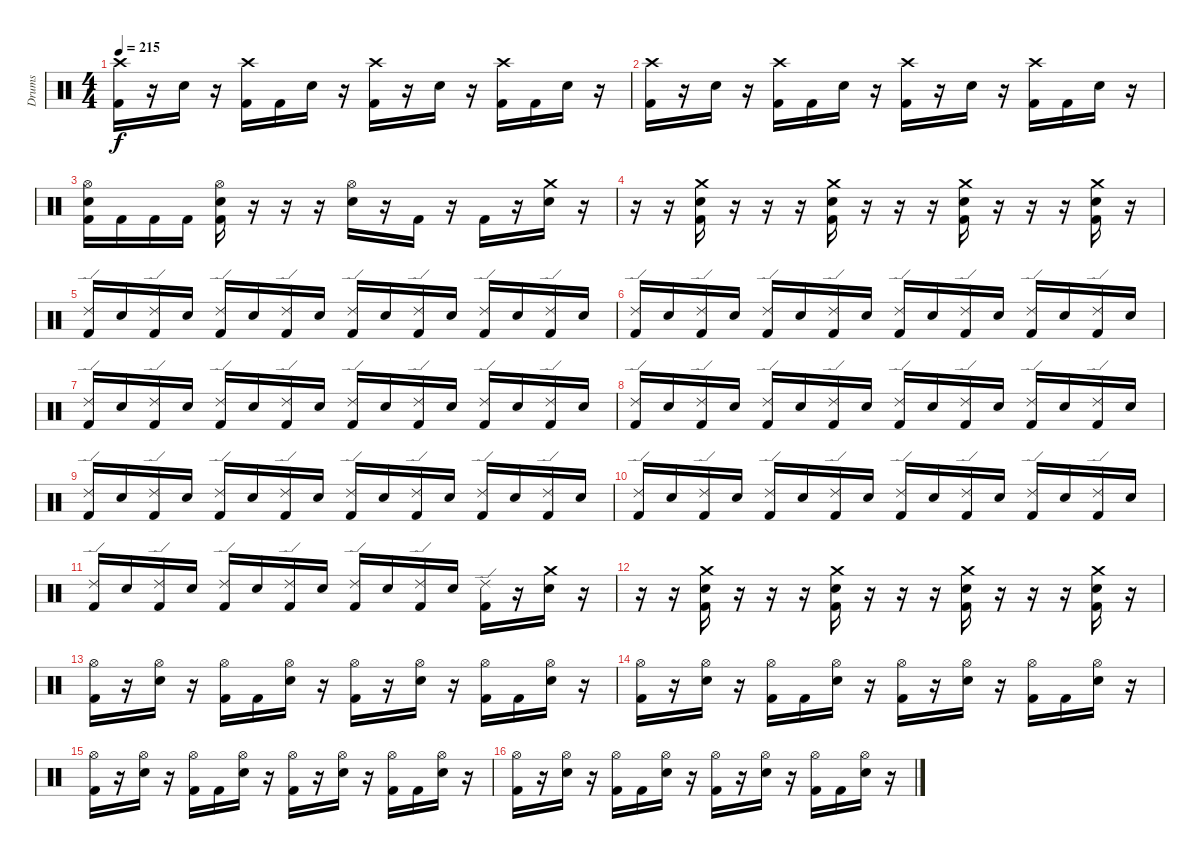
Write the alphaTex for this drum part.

\track ("Drums" "Drums") {instrument percussion}
\staff {score}
\articulation defaults
\ts (4 4)
\tempo 215
\clef neutral
\ks c
("Crash high (hit)" "Kick (hit) 2").16{dy f} r.16 "Snare (hit) 2".16 r.16 ("Crash high (hit)" "Kick (hit) 2").16 "Kick (hit) 2".16 "Snare (hit) 2".16 r.16 ("Crash high (hit)" "Kick (hit) 2").16 r.16 "Snare (hit) 2".16 r.16 ("Crash high (hit)" "Kick (hit) 2").16 "Kick (hit) 2".16 "Snare (hit) 2".16 r.16 |
("Crash high (hit)" "Kick (hit) 2").16 r.16 "Snare (hit) 2".16 r.16 ("Crash high (hit)" "Kick (hit) 2").16 "Kick (hit) 2".16 "Snare (hit) 2".16 r.16 ("Crash high (hit)" "Kick (hit) 2").16 r.16 "Snare (hit) 2".16 r.16 ("Crash high (hit)" "Kick (hit) 2").16 "Kick (hit) 2".16 "Snare (hit) 2".16 r.16 |
("Hi-Hat (open)" "Snare (hit) 2" "Kick (hit) 2").16 "Kick (hit) 2".16 "Kick (hit) 2".16 "Kick (hit) 2".16 ("Hi-Hat (open)" "Snare (hit) 2" "Kick (hit) 2").16 r.16 r.16 r.16 ("Hi-Hat (open)" "Snare (hit) 2").16 r.16 "Kick (hit) 2".16 r.16 "Kick (hit) 2".16 r.16 ("Crash medium (hit)" "Snare (hit) 2").16 r.16 |
r.16 r.16 ("Crash medium (hit)" "Snare (hit) 2" "Kick (hit) 2").16 r.16 r.16 r.16 ("Crash medium (hit)" "Snare (hit) 2" "Kick (hit) 2").16 r.16 r.16 r.16 ("Crash medium (hit)" "Snare (hit) 2" "Kick (hit) 2").16 r.16 r.16 r.16 ("Crash medium (hit)" "Snare (hit) 2" "Kick (hit) 2").16 r.16 |
("Ride (edge) 2" "Kick (hit) 2").16 "Snare (hit) 2".16 ("Ride (edge) 2" "Kick (hit) 2").16 "Snare (hit) 2".16 ("Ride (edge) 2" "Kick (hit) 2").16 "Snare (hit) 2".16 ("Ride (edge) 2" "Kick (hit) 2").16 "Snare (hit) 2".16 ("Ride (edge) 2" "Kick (hit) 2").16 "Snare (hit) 2".16 ("Ride (edge) 2" "Kick (hit) 2").16 "Snare (hit) 2".16 ("Ride (edge) 2" "Kick (hit) 2").16 "Snare (hit) 2".16 ("Ride (edge) 2" "Kick (hit) 2").16 "Snare (hit) 2".16 |
("Ride (edge) 2" "Kick (hit) 2").16 "Snare (hit) 2".16 ("Ride (edge) 2" "Kick (hit) 2").16 "Snare (hit) 2".16 ("Ride (edge) 2" "Kick (hit) 2").16 "Snare (hit) 2".16 ("Ride (edge) 2" "Kick (hit) 2").16 "Snare (hit) 2".16 ("Ride (edge) 2" "Kick (hit) 2").16 "Snare (hit) 2".16 ("Ride (edge) 2" "Kick (hit) 2").16 "Snare (hit) 2".16 ("Ride (edge) 2" "Kick (hit) 2").16 "Snare (hit) 2".16 ("Ride (edge) 2" "Kick (hit) 2").16 "Snare (hit) 2".16 |
("Ride (edge) 2" "Kick (hit) 2").16 "Snare (hit) 2".16 ("Ride (edge) 2" "Kick (hit) 2").16 "Snare (hit) 2".16 ("Ride (edge) 2" "Kick (hit) 2").16 "Snare (hit) 2".16 ("Ride (edge) 2" "Kick (hit) 2").16 "Snare (hit) 2".16 ("Ride (edge) 2" "Kick (hit) 2").16 "Snare (hit) 2".16 ("Ride (edge) 2" "Kick (hit) 2").16 "Snare (hit) 2".16 ("Ride (edge) 2" "Kick (hit) 2").16 "Snare (hit) 2".16 ("Ride (edge) 2" "Kick (hit) 2").16 "Snare (hit) 2".16 |
("Ride (edge) 2" "Kick (hit) 2").16 "Snare (hit) 2".16 ("Ride (edge) 2" "Kick (hit) 2").16 "Snare (hit) 2".16 ("Ride (edge) 2" "Kick (hit) 2").16 "Snare (hit) 2".16 ("Ride (edge) 2" "Kick (hit) 2").16 "Snare (hit) 2".16 ("Ride (edge) 2" "Kick (hit) 2").16 "Snare (hit) 2".16 ("Ride (edge) 2" "Kick (hit) 2").16 "Snare (hit) 2".16 ("Ride (edge) 2" "Kick (hit) 2").16 "Snare (hit) 2".16 ("Ride (edge) 2" "Kick (hit) 2").16 "Snare (hit) 2".16 |
("Ride (edge) 2" "Kick (hit) 2").16 "Snare (hit) 2".16 ("Ride (edge) 2" "Kick (hit) 2").16 "Snare (hit) 2".16 ("Ride (edge) 2" "Kick (hit) 2").16 "Snare (hit) 2".16 ("Ride (edge) 2" "Kick (hit) 2").16 "Snare (hit) 2".16 ("Ride (edge) 2" "Kick (hit) 2").16 "Snare (hit) 2".16 ("Ride (edge) 2" "Kick (hit) 2").16 "Snare (hit) 2".16 ("Ride (edge) 2" "Kick (hit) 2").16 "Snare (hit) 2".16 ("Ride (edge) 2" "Kick (hit) 2").16 "Snare (hit) 2".16 |
("Ride (edge) 2" "Kick (hit) 2").16 "Snare (hit) 2".16 ("Ride (edge) 2" "Kick (hit) 2").16 "Snare (hit) 2".16 ("Ride (edge) 2" "Kick (hit) 2").16 "Snare (hit) 2".16 ("Ride (edge) 2" "Kick (hit) 2").16 "Snare (hit) 2".16 ("Ride (edge) 2" "Kick (hit) 2").16 "Snare (hit) 2".16 ("Ride (edge) 2" "Kick (hit) 2").16 "Snare (hit) 2".16 ("Ride (edge) 2" "Kick (hit) 2").16 "Snare (hit) 2".16 ("Ride (edge) 2" "Kick (hit) 2").16 "Snare (hit) 2".16 |
("Ride (edge) 2" "Kick (hit) 2").16 "Snare (hit) 2".16 ("Ride (edge) 2" "Kick (hit) 2").16 "Snare (hit) 2".16 ("Ride (edge) 2" "Kick (hit) 2").16 "Snare (hit) 2".16 ("Ride (edge) 2" "Kick (hit) 2").16 "Snare (hit) 2".16 ("Ride (edge) 2" "Kick (hit) 2").16 "Snare (hit) 2".16 ("Ride (edge) 2" "Kick (hit) 2").16 "Snare (hit) 2".16 ("Ride (edge) 2" "Kick (hit) 2").16 r.16 ("Crash medium (hit)" "Snare (hit) 2").16 r.16 |
r.16 r.16 ("Crash medium (hit)" "Snare (hit) 2" "Kick (hit) 2").16 r.16 r.16 r.16 ("Crash medium (hit)" "Snare (hit) 2" "Kick (hit) 2").16 r.16 r.16 r.16 ("Crash medium (hit)" "Snare (hit) 2" "Kick (hit) 2").16 r.16 r.16 r.16 ("Crash medium (hit)" "Snare (hit) 2" "Kick (hit) 2").16 r.16 |
("Hi-Hat (open)" "Kick (hit) 2").16 r.16 ("Hi-Hat (open)" "Snare (hit) 2").16 r.16 ("Hi-Hat (open)" "Kick (hit) 2").16 "Kick (hit) 2".16 ("Hi-Hat (open)" "Snare (hit) 2").16 r.16 ("Hi-Hat (open)" "Kick (hit) 2").16 r.16 ("Hi-Hat (open)" "Snare (hit) 2").16 r.16 ("Hi-Hat (open)" "Kick (hit) 2").16 "Kick (hit) 2".16 ("Hi-Hat (open)" "Snare (hit) 2").16 r.16 |
("Hi-Hat (open)" "Kick (hit) 2").16 r.16 ("Hi-Hat (open)" "Snare (hit) 2").16 r.16 ("Hi-Hat (open)" "Kick (hit) 2").16 "Kick (hit) 2".16 ("Hi-Hat (open)" "Snare (hit) 2").16 r.16 ("Hi-Hat (open)" "Kick (hit) 2").16 r.16 ("Hi-Hat (open)" "Snare (hit) 2").16 r.16 ("Hi-Hat (open)" "Kick (hit) 2").16 "Kick (hit) 2".16 ("Hi-Hat (open)" "Snare (hit) 2").16 r.16 |
("Hi-Hat (open)" "Kick (hit) 2").16 r.16 ("Hi-Hat (open)" "Snare (hit) 2").16 r.16 ("Hi-Hat (open)" "Kick (hit) 2").16 "Kick (hit) 2".16 ("Hi-Hat (open)" "Snare (hit) 2").16 r.16 ("Hi-Hat (open)" "Kick (hit) 2").16 r.16 ("Hi-Hat (open)" "Snare (hit) 2").16 r.16 ("Hi-Hat (open)" "Kick (hit) 2").16 "Kick (hit) 2".16 ("Hi-Hat (open)" "Snare (hit) 2").16 r.16 |
("Hi-Hat (open)" "Kick (hit) 2").16 r.16 ("Hi-Hat (open)" "Snare (hit) 2").16 r.16 ("Hi-Hat (open)" "Kick (hit) 2").16 "Kick (hit) 2".16 ("Hi-Hat (open)" "Snare (hit) 2").16 r.16 ("Hi-Hat (open)" "Kick (hit) 2").16 r.16 ("Hi-Hat (open)" "Snare (hit) 2").16 r.16 ("Hi-Hat (open)" "Kick (hit) 2").16 "Kick (hit) 2".16 ("Hi-Hat (open)" "Snare (hit) 2").16 r.16
